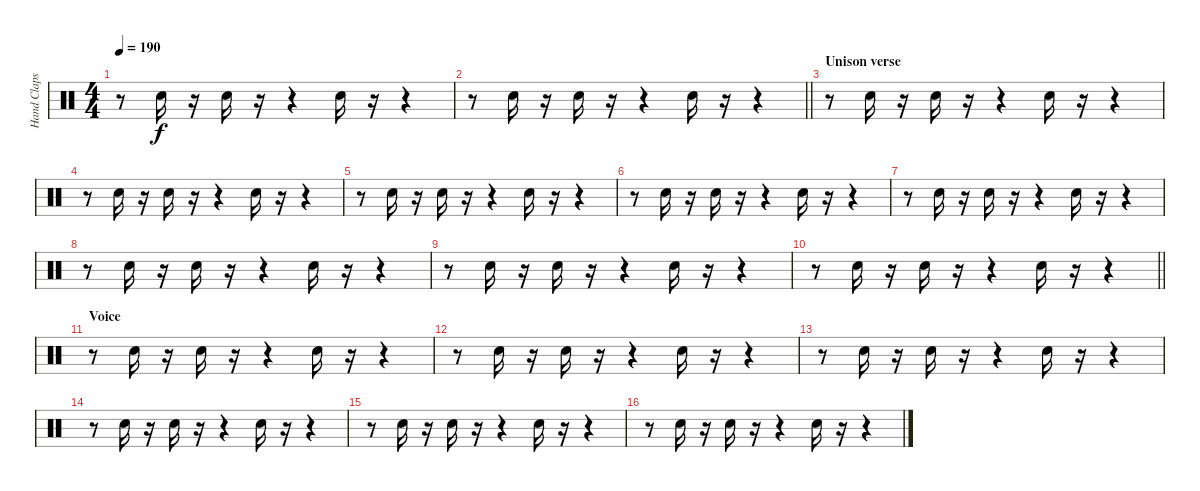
\track ("Hand Claps" "Hand Claps") {instrument percussion}
\staff {score}
\articulation defaults
\ts (4 4)
\tempo 190
\clef neutral
\ks c
r.8{dy f} "Hand Clap (hit)".16 r.16 "Hand Clap (hit)".16 r.16 r.4 "Hand Clap (hit)".16 r.16 r.4 |
\barLineRight lightlight
r.8 "Hand Clap (hit)".16 r.16 "Hand Clap (hit)".16 r.16 r.4 "Hand Clap (hit)".16 r.16 r.4 |
\section ("" "Unison verse")
r.8 "Hand Clap (hit)".16 r.16 "Hand Clap (hit)".16 r.16 r.4 "Hand Clap (hit)".16 r.16 r.4 |
r.8 "Hand Clap (hit)".16 r.16 "Hand Clap (hit)".16 r.16 r.4 "Hand Clap (hit)".16 r.16 r.4 |
r.8 "Hand Clap (hit)".16 r.16 "Hand Clap (hit)".16 r.16 r.4 "Hand Clap (hit)".16 r.16 r.4 |
r.8 "Hand Clap (hit)".16 r.16 "Hand Clap (hit)".16 r.16 r.4 "Hand Clap (hit)".16 r.16 r.4 |
r.8 "Hand Clap (hit)".16 r.16 "Hand Clap (hit)".16 r.16 r.4 "Hand Clap (hit)".16 r.16 r.4 |
r.8 "Hand Clap (hit)".16 r.16 "Hand Clap (hit)".16 r.16 r.4 "Hand Clap (hit)".16 r.16 r.4 |
r.8 "Hand Clap (hit)".16 r.16 "Hand Clap (hit)".16 r.16 r.4 "Hand Clap (hit)".16 r.16 r.4 |
\barLineRight lightlight
r.8 "Hand Clap (hit)".16 r.16 "Hand Clap (hit)".16 r.16 r.4 "Hand Clap (hit)".16 r.16 r.4 |
\section ("" "Voice")
r.8 "Hand Clap (hit)".16 r.16 "Hand Clap (hit)".16 r.16 r.4 "Hand Clap (hit)".16 r.16 r.4 |
r.8 "Hand Clap (hit)".16 r.16 "Hand Clap (hit)".16 r.16 r.4 "Hand Clap (hit)".16 r.16 r.4 |
r.8 "Hand Clap (hit)".16 r.16 "Hand Clap (hit)".16 r.16 r.4 "Hand Clap (hit)".16 r.16 r.4 |
r.8 "Hand Clap (hit)".16 r.16 "Hand Clap (hit)".16 r.16 r.4 "Hand Clap (hit)".16 r.16 r.4 |
r.8 "Hand Clap (hit)".16 r.16 "Hand Clap (hit)".16 r.16 r.4 "Hand Clap (hit)".16 r.16 r.4 |
r.8 "Hand Clap (hit)".16 r.16 "Hand Clap (hit)".16 r.16 r.4 "Hand Clap (hit)".16 r.16 r.4
